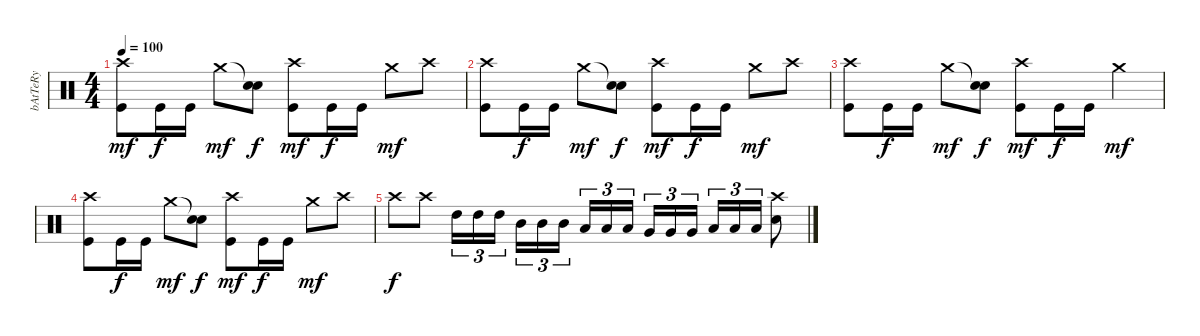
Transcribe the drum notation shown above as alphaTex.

\track ("bAtTeRy" "bAtTeRy") {instrument percussion}
\staff {score}
\articulation defaults
\ts (4 4)
\tempo 100
\clef neutral
\ks c
("Crash high (hit)" "Kick (hit)").8{dy mf} "Kick (hit)".16{dy f} "Kick (hit)".16 "Crash medium (hit)".8{dy mf} ("Snare (hit)"{t} "Electric Snare (hit)").8{dy f} ("Crash high (hit)" "Kick (hit)").8{dy mf} "Kick (hit)".16{dy f} "Kick (hit)".16 "Crash medium (hit)".8{dy mf} "Crash high (hit)".8 |
("Crash high (hit)" "Kick (hit)").8 "Kick (hit)".16{dy f} "Kick (hit)".16 "Crash medium (hit)".8{dy mf} ("Snare (hit)"{t} "Electric Snare (hit)").8{dy f} ("Crash high (hit)" "Kick (hit)").8{dy mf} "Kick (hit)".16{dy f} "Kick (hit)".16 "Crash medium (hit)".8{dy mf} "Crash high (hit)".8 |
("Crash high (hit)" "Kick (hit)").8 "Kick (hit)".16{dy f} "Kick (hit)".16 "Crash medium (hit)".8{dy mf} ("Snare (hit)"{t} "Electric Snare (hit)").8{dy f} ("Crash high (hit)" "Kick (hit)").8{dy mf} "Kick (hit)".16{dy f} "Kick (hit)".16 "Crash medium (hit)".4{dy mf} |
("Crash high (hit)" "Kick (hit)").8 "Kick (hit)".16{dy f} "Kick (hit)".16 "Crash medium (hit)".8{dy mf} ("Snare (hit)"{t} "Electric Snare (hit)").8{dy f} ("Crash high (hit)" "Kick (hit)").8{dy mf} "Kick (hit)".16{dy f} "Kick (hit)".16 "Crash medium (hit)".8{dy mf} "Crash high (hit)".8 |
"Crash high (hit)".8{dy f} "Crash high (hit)".8 "High Tom (hit)".16{tu (3 2)} "High Tom (hit)".16{tu (3 2)} "High Tom (hit)".16{tu (3 2)} "Mid Tom (hit)".16{tu (3 2)} "Mid Tom (hit)".16{tu (3 2)} "Mid Tom (hit)".16{tu (3 2)} "Low Tom (hit)".16{tu (3 2)} "Low Tom (hit)".16{tu (3 2)} "Low Tom (hit)".16{tu (3 2)} "Very Low Tom (hit)".16{tu (3 2)} "Very Low Tom (hit)".16{tu (3 2)} "Very Low Tom (hit)".16{tu (3 2)} "Low Floor Tom (hit)".16{tu (3 2)} "Low Floor Tom (hit)".16{tu (3 2)} "Low Floor Tom (hit)".16{tu (3 2)} ("Crash high (hit)" "Electric Snare (hit)").8
